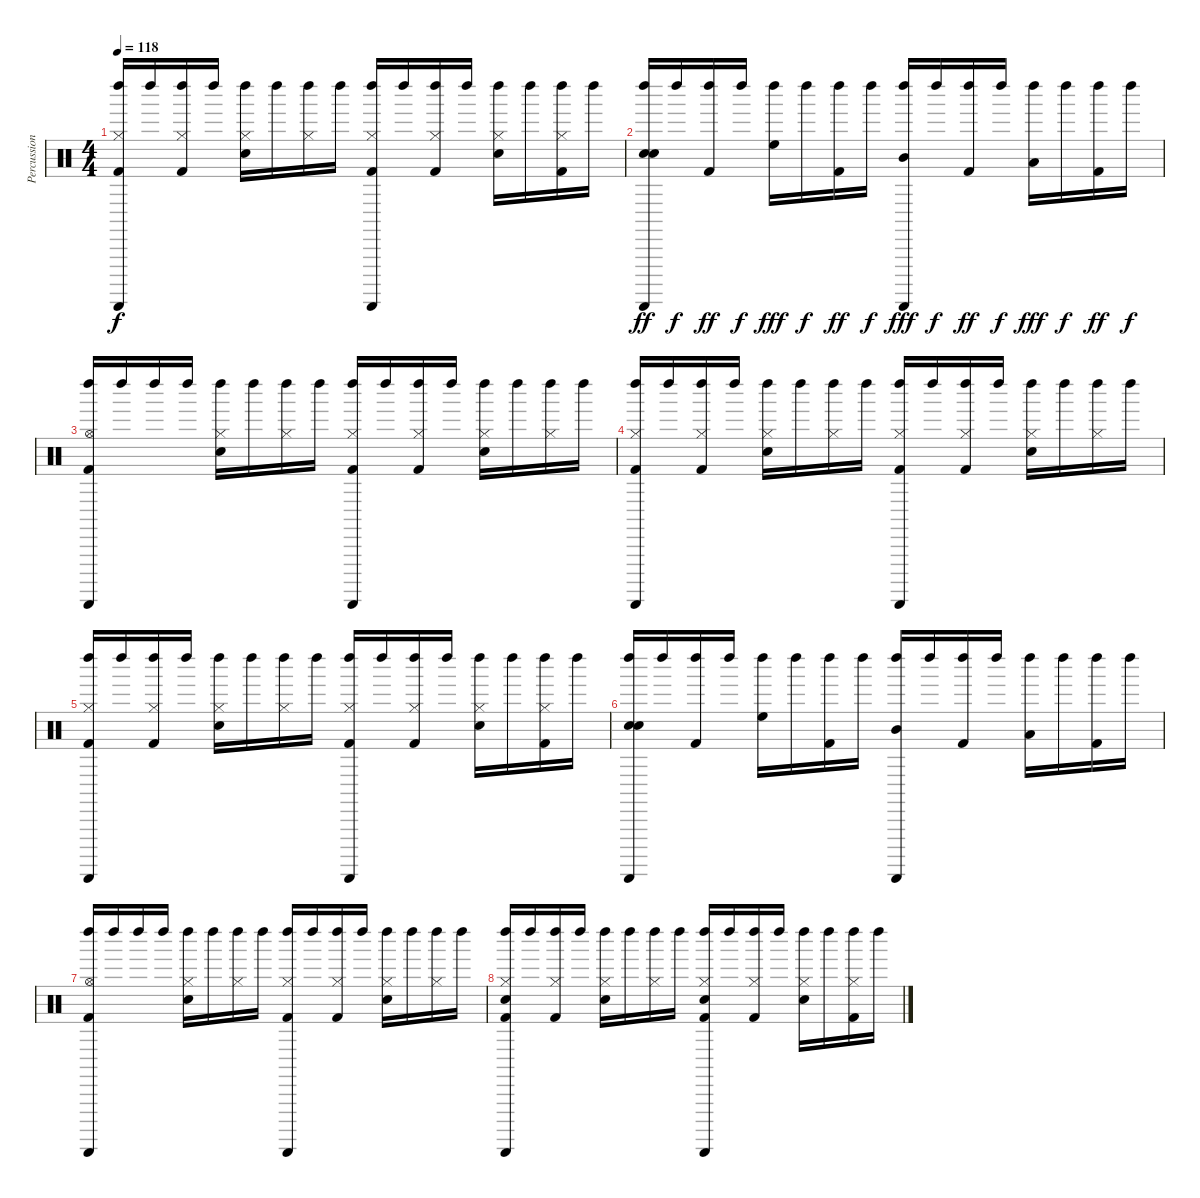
\track ("Percussions" "Percussion") {instrument percussion}
\staff {score}
\articulation defaults
\ts (4 4)
\tempo 118
\clef neutral
\ks c
("Guiro (scrap-return)" "Left Maraca (hit)" "Hi-Hat (closed)" "Kick (hit) 2").16{dy f} "Left Maraca (hit)".16 ("Left Maraca (hit)" "Hi-Hat (closed)" "Kick (hit) 2").16 "Left Maraca (hit)".16 ("Left Maraca (hit)" "Hi-Hat (closed)" "Snare (hit) 2").16 "Left Maraca (hit)".16 ("Left Maraca (hit)" "Hi-Hat (closed)").16 "Left Maraca (hit)".16 ("Guiro (scrap-return)" "Left Maraca (hit)" "Hi-Hat (closed)" "Kick (hit) 2").16 "Left Maraca (hit)".16 ("Left Maraca (hit)" "Hi-Hat (closed)" "Kick (hit) 2").16 "Left Maraca (hit)".16 ("Left Maraca (hit)" "Hi-Hat (closed)" "Snare (hit) 2").16 "Left Maraca (hit)".16 ("Left Maraca (hit)" "Hi-Hat (closed)" "Kick (hit) 2").16 "Left Maraca (hit)".16 |
("Guiro (scrap-return)" "Left Maraca (hit)" "Snare (hit) 2" "Snare (hit) 2").16{dy ff} "Left Maraca (hit)".16{dy f} ("Left Maraca (hit)" "Kick (hit) 2").16{dy ff} "Left Maraca (hit)".16{dy f} ("Left Maraca (hit)" "High Floor Tom (hit)").16{dy fff} "Left Maraca (hit)".16{dy f} ("Left Maraca (hit)" "Kick (hit) 2").16{dy ff} "Left Maraca (hit)".16{dy f} ("Guiro (scrap-return)" "Left Maraca (hit)" "Mid Tom (hit)").16{dy fff} "Left Maraca (hit)".16{dy f} ("Left Maraca (hit)" "Kick (hit) 2").16{dy ff} "Left Maraca (hit)".16{dy f} ("Left Maraca (hit)" "Low Tom (hit)").16{dy fff} "Left Maraca (hit)".16{dy f} ("Left Maraca (hit)" "Kick (hit) 2").16{dy ff} "Left Maraca (hit)".16{dy f} |
("Guiro (scrap-return)" "Left Maraca (hit)" "Hi-Hat (open)" "Kick (hit) 2").16 "Left Maraca (hit)".16 "Left Maraca (hit)".16 "Left Maraca (hit)".16 ("Left Maraca (hit)" "Hi-Hat (closed)" "Snare (hit) 2").16 "Left Maraca (hit)".16 ("Left Maraca (hit)" "Hi-Hat (closed)").16 "Left Maraca (hit)".16 ("Guiro (scrap-return)" "Left Maraca (hit)" "Hi-Hat (closed)" "Kick (hit) 2").16 "Left Maraca (hit)".16 ("Left Maraca (hit)" "Hi-Hat (closed)" "Kick (hit) 2").16 "Left Maraca (hit)".16 ("Left Maraca (hit)" "Hi-Hat (closed)" "Snare (hit) 2").16 "Left Maraca (hit)".16 ("Left Maraca (hit)" "Hi-Hat (closed)").16 "Left Maraca (hit)".16 |
("Guiro (scrap-return)" "Left Maraca (hit)" "Hi-Hat (closed)" "Kick (hit) 2").16 "Left Maraca (hit)".16 ("Left Maraca (hit)" "Hi-Hat (closed)" "Kick (hit) 2").16 "Left Maraca (hit)".16 ("Left Maraca (hit)" "Hi-Hat (closed)" "Snare (hit) 2").16 "Left Maraca (hit)".16 ("Left Maraca (hit)" "Hi-Hat (closed)").16 "Left Maraca (hit)".16 ("Guiro (scrap-return)" "Left Maraca (hit)" "Hi-Hat (closed)" "Kick (hit) 2").16 "Left Maraca (hit)".16 ("Left Maraca (hit)" "Hi-Hat (closed)" "Kick (hit) 2").16 "Left Maraca (hit)".16 ("Left Maraca (hit)" "Hi-Hat (closed)" "Snare (hit) 2").16 "Left Maraca (hit)".16 ("Left Maraca (hit)" "Hi-Hat (closed)").16 "Left Maraca (hit)".16 |
("Guiro (scrap-return)" "Left Maraca (hit)" "Hi-Hat (closed)" "Kick (hit) 2").16 "Left Maraca (hit)".16 ("Left Maraca (hit)" "Hi-Hat (closed)" "Kick (hit) 2").16 "Left Maraca (hit)".16 ("Left Maraca (hit)" "Hi-Hat (closed)" "Snare (hit) 2").16 "Left Maraca (hit)".16 ("Left Maraca (hit)" "Hi-Hat (closed)").16 "Left Maraca (hit)".16 ("Guiro (scrap-return)" "Left Maraca (hit)" "Hi-Hat (closed)" "Kick (hit) 2").16 "Left Maraca (hit)".16 ("Left Maraca (hit)" "Hi-Hat (closed)" "Kick (hit) 2").16 "Left Maraca (hit)".16 ("Left Maraca (hit)" "Hi-Hat (closed)" "Snare (hit) 2").16 "Left Maraca (hit)".16 ("Left Maraca (hit)" "Hi-Hat (closed)" "Kick (hit) 2").16 "Left Maraca (hit)".16 |
("Guiro (scrap-return)" "Left Maraca (hit)" "Snare (hit) 2" "Snare (hit) 2").16 "Left Maraca (hit)".16 ("Left Maraca (hit)" "Kick (hit) 2").16 "Left Maraca (hit)".16 ("Left Maraca (hit)" "High Floor Tom (hit)").16 "Left Maraca (hit)".16 ("Left Maraca (hit)" "Kick (hit) 2").16 "Left Maraca (hit)".16 ("Guiro (scrap-return)" "Left Maraca (hit)" "Mid Tom (hit)").16 "Left Maraca (hit)".16 ("Left Maraca (hit)" "Kick (hit) 2").16 "Left Maraca (hit)".16 ("Left Maraca (hit)" "Low Tom (hit)").16 "Left Maraca (hit)".16 ("Left Maraca (hit)" "Kick (hit) 2").16 "Left Maraca (hit)".16 |
("Guiro (scrap-return)" "Left Maraca (hit)" "Hi-Hat (open)" "Kick (hit) 2").16 "Left Maraca (hit)".16 "Left Maraca (hit)".16 "Left Maraca (hit)".16 ("Left Maraca (hit)" "Hi-Hat (closed)" "Snare (hit) 2").16 "Left Maraca (hit)".16 ("Left Maraca (hit)" "Hi-Hat (closed)").16 "Left Maraca (hit)".16 ("Guiro (scrap-return)" "Left Maraca (hit)" "Hi-Hat (closed)" "Kick (hit) 2").16 "Left Maraca (hit)".16 ("Left Maraca (hit)" "Hi-Hat (closed)" "Kick (hit) 2").16 "Left Maraca (hit)".16 ("Left Maraca (hit)" "Hi-Hat (closed)" "Snare (hit) 2").16 "Left Maraca (hit)".16 ("Left Maraca (hit)" "Hi-Hat (closed)").16 "Left Maraca (hit)".16 |
("Guiro (scrap-return)" "Left Maraca (hit)" "Hi-Hat (closed)" "Snare (hit) 2" "Kick (hit) 2").16 "Left Maraca (hit)".16 ("Left Maraca (hit)" "Hi-Hat (closed)" "Kick (hit) 2").16 "Left Maraca (hit)".16 ("Left Maraca (hit)" "Hi-Hat (closed)" "Snare (hit) 2").16 "Left Maraca (hit)".16 ("Left Maraca (hit)" "Hi-Hat (closed)").16 "Left Maraca (hit)".16 ("Guiro (scrap-return)" "Left Maraca (hit)" "Hi-Hat (closed)" "Snare (hit) 2" "Kick (hit) 2").16 "Left Maraca (hit)".16 ("Left Maraca (hit)" "Hi-Hat (closed)" "Kick (hit) 2").16 "Left Maraca (hit)".16 ("Left Maraca (hit)" "Hi-Hat (closed)" "Snare (hit) 2").16 "Left Maraca (hit)".16 ("Left Maraca (hit)" "Hi-Hat (closed)" "Kick (hit) 2").16 "Left Maraca (hit)".16
